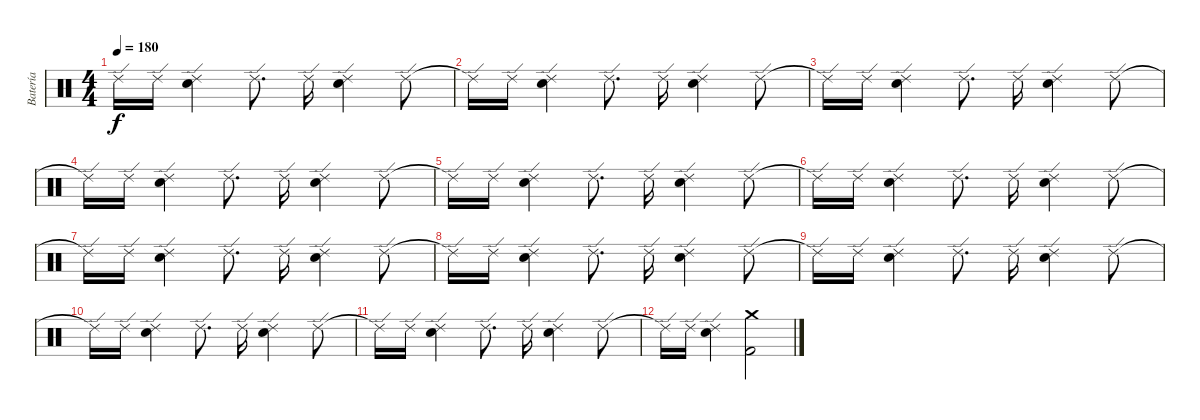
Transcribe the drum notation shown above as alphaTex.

\track ("Batería" "Batería") {instrument percussion}
\staff {score}
\articulation defaults
\ts (4 4)
\tempo 180
\clef neutral
\ks c "Ride (edge) 2"{t}.16{dy f} "Ride (edge) 2".16
("Ride (edge) 2" "Snare (hit) 2").4 "Ride (edge) 2".8{d} "Ride (edge) 2".16 ("Ride (edge) 2" "Snare (hit) 2").4 "Ride (edge) 2".8 |
"Ride (edge) 2"{t}.16 "Ride (edge) 2".16 ("Ride (edge) 2" "Snare (hit) 2").4 "Ride (edge) 2".8{d} "Ride (edge) 2".16 ("Ride (edge) 2" "Snare (hit) 2").4 "Ride (edge) 2".8 |
"Ride (edge) 2"{t}.16 "Ride (edge) 2".16 ("Ride (edge) 2" "Snare (hit) 2").4 "Ride (edge) 2".8{d} "Ride (edge) 2".16 ("Ride (edge) 2" "Snare (hit) 2").4 "Ride (edge) 2".8 |
"Ride (edge) 2"{t}.16 "Ride (edge) 2".16 ("Ride (edge) 2" "Snare (hit) 2").4 "Ride (edge) 2".8{d} "Ride (edge) 2".16 ("Ride (edge) 2" "Snare (hit) 2").4 "Ride (edge) 2".8 |
"Ride (edge) 2"{t}.16 "Ride (edge) 2".16 ("Ride (edge) 2" "Snare (hit) 2").4 "Ride (edge) 2".8{d} "Ride (edge) 2".16 ("Ride (edge) 2" "Snare (hit) 2").4 "Ride (edge) 2".8 |
"Ride (edge) 2"{t}.16 "Ride (edge) 2".16 ("Ride (edge) 2" "Snare (hit) 2").4 "Ride (edge) 2".8{d} "Ride (edge) 2".16 ("Ride (edge) 2" "Snare (hit) 2").4 "Ride (edge) 2".8 |
"Ride (edge) 2"{t}.16 "Ride (edge) 2".16 ("Ride (edge) 2" "Snare (hit) 2").4 "Ride (edge) 2".8{d} "Ride (edge) 2".16 ("Ride (edge) 2" "Snare (hit) 2").4 "Ride (edge) 2".8 |
"Ride (edge) 2"{t}.16 "Ride (edge) 2".16 ("Ride (edge) 2" "Snare (hit) 2").4 "Ride (edge) 2".8{d} "Ride (edge) 2".16 ("Ride (edge) 2" "Snare (hit) 2").4 "Ride (edge) 2".8 |
"Ride (edge) 2"{t}.16 "Ride (edge) 2".16 ("Ride (edge) 2" "Snare (hit) 2").4 "Ride (edge) 2".8{d} "Ride (edge) 2".16 ("Ride (edge) 2" "Snare (hit) 2").4 "Ride (edge) 2".8 |
"Ride (edge) 2"{t}.16 "Ride (edge) 2".16 ("Ride (edge) 2" "Snare (hit) 2").4 "Ride (edge) 2".8{d} "Ride (edge) 2".16 ("Ride (edge) 2" "Snare (hit) 2").4 "Ride (edge) 2".8 |
"Ride (edge) 2"{t}.16 "Ride (edge) 2".16 ("Ride (edge) 2" "Snare (hit) 2").4 "Ride (edge) 2".8{d} "Ride (edge) 2".16 ("Ride (edge) 2" "Snare (hit) 2").4 "Ride (edge) 2".8 |
"Ride (edge) 2"{t}.16 "Ride (edge) 2".16 ("Ride (edge) 2" "Snare (hit) 2").4 ("Crash medium (hit)" "Kick (hit) 2").2
